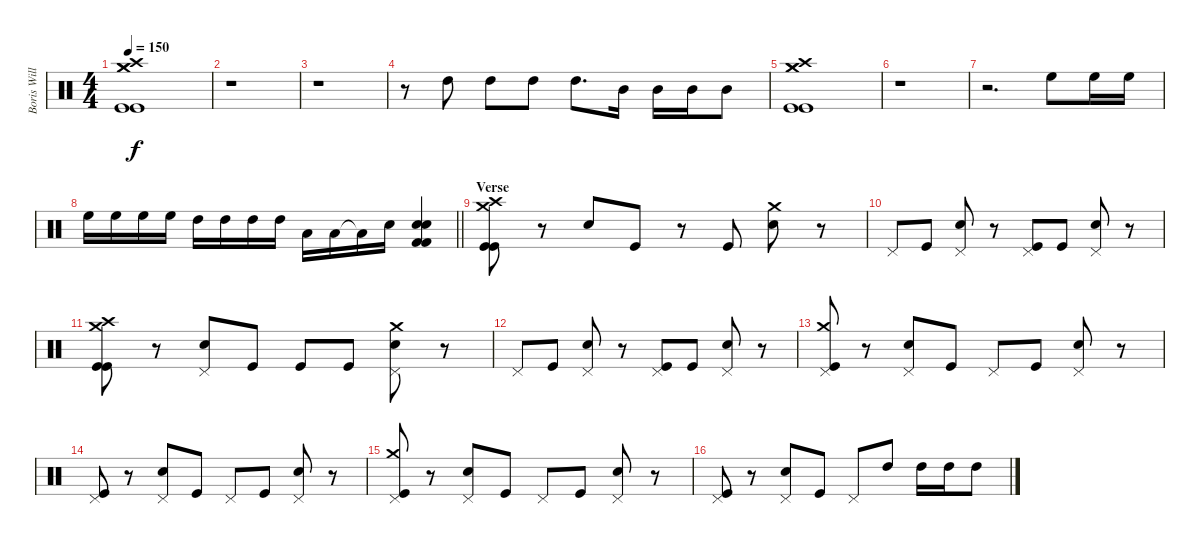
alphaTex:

\track ("Boris Williams" "Boris Will") {instrument percussion}
\staff {score}
\articulation defaults
\ts (4 4)
\tempo 150
\clef neutral
\ks c
("Crash high (hit)" "Kick (hit)" "Kick (hit)" "Crash medium (hit)" "Crash medium (hit)").1{dy f} |
r.1 |
r.1 |
r.8 "High Tom (hit)".8 "High Tom (hit)".8 "High Tom (hit)".8 "High Tom (hit)".8{d} "Mid Tom (hit)".16 "Mid Tom (hit)".16 "Mid Tom (hit)".16 "Mid Tom (hit)".8 |
("Crash high (hit)" "Kick (hit)" "Kick (hit)" "Crash medium (hit)" "Crash medium (hit)").1 |
r.1 |
r.2{d} "High Floor Tom (hit)".8 "High Floor Tom (hit)".16 "High Floor Tom (hit)".16 |
\barLineRight lightlight "High Floor Tom (hit)".16 "High Floor Tom (hit)".16 "High Floor Tom (hit)".16 "High Floor Tom (hit)".16 "High Tom (hit)".16 "High Tom (hit)".16 "High Tom (hit)".16 "High Tom (hit)".16 "Low Tom (hit)".16 "Low Tom (hit)".16 "Low Tom (hit)"{t}.16 "Snare (hit) 2".16
("Kick (hit) 2" "Kick (hit) 2" "Snare (hit) 2" "Snare (hit) 2").4 |
\section ("" "Verse")
("Kick (hit)" "Kick (hit)" "Crash high (hit)" "Crash medium (hit)").8 r.8 "Snare (hit) 2".8 "Kick (hit)".8 r.8 "Kick (hit)".8 ("Snare (hit) 2" "Crash medium (hit)").8 r.8 |
"Pedal Hi-Hat (hit)".8 "Kick (hit)".8 ("Pedal Hi-Hat (hit)" "Snare (hit) 2").8 r.8 ("Pedal Hi-Hat (hit)" "Kick (hit)").8 "Kick (hit)".8 ("Pedal Hi-Hat (hit)" "Snare (hit) 2").8 r.8 |
("Kick (hit)" "Kick (hit)" "Crash high (hit)" "Crash medium (hit)").8 r.8 ("Pedal Hi-Hat (hit)" "Snare (hit) 2").8 "Kick (hit)".8 "Kick (hit)".8 "Kick (hit)".8 ("Pedal Hi-Hat (hit)" "Snare (hit) 2" "Crash medium (hit)").8 r.8 |
"Pedal Hi-Hat (hit)".8 "Kick (hit)".8 ("Pedal Hi-Hat (hit)" "Snare (hit) 2").8 r.8 ("Pedal Hi-Hat (hit)" "Kick (hit)").8 "Kick (hit)".8 ("Pedal Hi-Hat (hit)" "Snare (hit) 2").8 r.8 |
("Pedal Hi-Hat (hit)" "Kick (hit)" "Crash medium (hit)").8 r.8 ("Pedal Hi-Hat (hit)" "Snare (hit) 2").8 "Kick (hit)".8 "Pedal Hi-Hat (hit)".8 "Kick (hit)".8 ("Pedal Hi-Hat (hit)" "Snare (hit) 2").8 r.8 |
("Pedal Hi-Hat (hit)" "Kick (hit)").8 r.8 ("Pedal Hi-Hat (hit)" "Snare (hit) 2").8 "Kick (hit)".8 "Pedal Hi-Hat (hit)".8 "Kick (hit)".8 ("Pedal Hi-Hat (hit)" "Snare (hit) 2").8 r.8 |
("Pedal Hi-Hat (hit)" "Kick (hit)" "Crash medium (hit)").8 r.8 ("Pedal Hi-Hat (hit)" "Snare (hit) 2").8 "Kick (hit)".8 "Pedal Hi-Hat (hit)".8 "Kick (hit)".8 ("Pedal Hi-Hat (hit)" "Snare (hit) 2").8 r.8 |
("Pedal Hi-Hat (hit)" "Kick (hit)").8 r.8 ("Pedal Hi-Hat (hit)" "Snare (hit) 2").8 "Kick (hit)".8 "Pedal Hi-Hat (hit)".8 "High Tom (hit)".8 "High Tom (hit)".16 "High Tom (hit)".16 "High Tom (hit)".8
